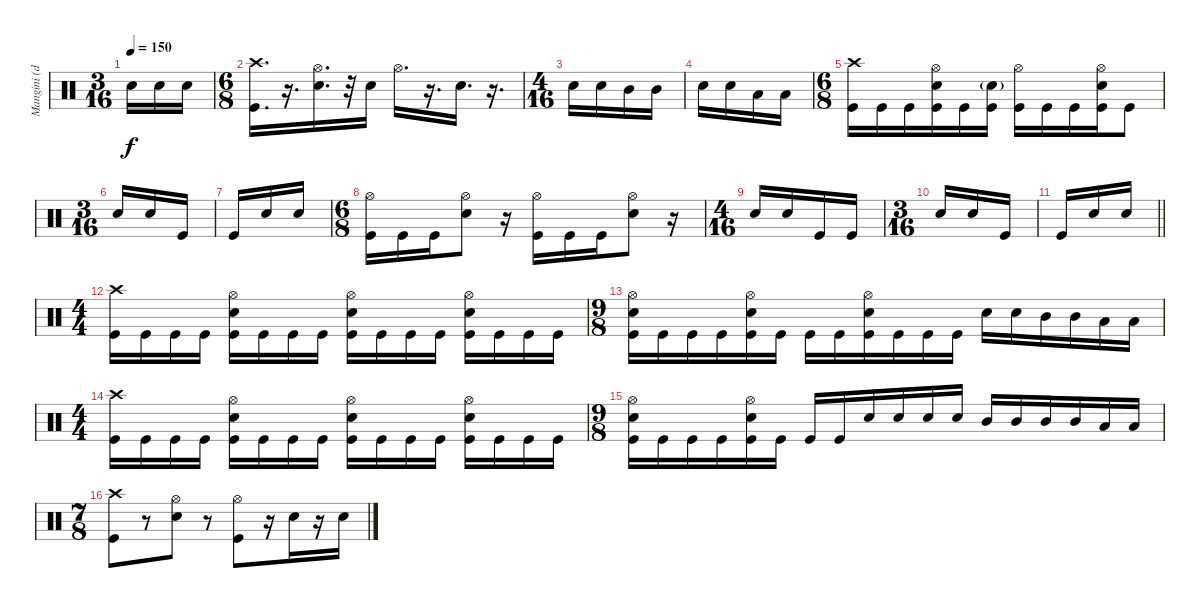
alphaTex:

\track ("Mangini (drums)" "Mangini (d") {instrument percussion}
\staff {score}
\articulation defaults
\ts (3 16)
\tempo 150
\clef neutral
\ks aminor "Snare (hit) 2".16{dy f beam merge} "Snare (hit) 2".16{beam merge} "Snare (hit) 2".16
|
\ts (6 8)
("Crash high (hit)" "Kick (hit)").16{d} r.16{d} ("Hi-Hat (open)" "Snare (hit) 2").16{d} r.32 "Snare (hit) 2".16 "Hi-Hat (open)".16{d} r.16{d} "Snare (hit) 2".16{d} r.16{d} |
\ts (4 16)
"Snare (hit) 2".16{beam merge} "Snare (hit) 2".16{beam merge} "Mid Tom (hit)".16{beam merge} "Mid Tom (hit)".16 |
"Snare (hit) 2".16{beam merge} "Snare (hit) 2".16{beam merge} "Low Tom (hit)".16{beam merge} "Low Tom (hit)".16 |
\ts (6 8)
("Crash high (hit)" "Kick (hit)").16 "Kick (hit)".16 "Kick (hit)".16 ("Hi-Hat (open)" "Snare (hit) 2" "Kick (hit)").16 "Kick (hit)".16 ("Snare (hit) 2"{g} "Kick (hit)").16 ("Hi-Hat (open)" "Kick (hit)").16 "Kick (hit)".16 "Kick (hit)".16 ("Hi-Hat (open)" "Snare (hit) 2" "Kick (hit)").16 "Kick (hit)".8 |
\ts (3 16)
"Snare (hit) 2".16{beam merge} "Snare (hit) 2".16{beam merge} "Kick (hit)".16 |
"Kick (hit)".16{beam merge} "Snare (hit) 2".16{beam merge} "Snare (hit) 2".16 |
\ts (6 8)
("Hi-Hat (open)" "Kick (hit)").16 "Kick (hit)".16 "Kick (hit)".16 ("Hi-Hat (open)" "Snare (hit) 2").8 r.16 ("Hi-Hat (open)" "Kick (hit)").16 "Kick (hit)".16 "Kick (hit)".16 ("Hi-Hat (open)" "Snare (hit) 2").8 r.16 |
\ts (4 16)
"Snare (hit) 2".16{beam merge} "Snare (hit) 2".16{beam merge} "Kick (hit)".16{beam merge} "Kick (hit)".16 |
\ts (3 16)
"Snare (hit) 2".16{beam merge} "Snare (hit) 2".16{beam merge} "Kick (hit)".16 |
\barLineRight lightlight "Kick (hit)".16{beam merge} "Snare (hit) 2".16{beam merge} "Snare (hit) 2".16
|
\ts (4 4)
("Crash high (hit)" "Kick (hit)").16 "Kick (hit)".16 "Kick (hit)".16 "Kick (hit)".16 ("Hi-Hat (open)" "Snare (hit) 2" "Kick (hit)").16 "Kick (hit)".16 "Kick (hit)".16 "Kick (hit)".16 ("Hi-Hat (open)" "Snare (hit) 2" "Kick (hit)").16 "Kick (hit)".16 "Kick (hit)".16 "Kick (hit)".16 ("Hi-Hat (open)" "Snare (hit) 2" "Kick (hit)").16 "Kick (hit)".16 "Kick (hit)".16 "Kick (hit)".16 |
\ts (9 8)
("Hi-Hat (open)" "Snare (hit) 2" "Kick (hit)").16 "Kick (hit)".16 "Kick (hit)".16 "Kick (hit)".16 ("Hi-Hat (open)" "Snare (hit) 2" "Kick (hit)").16 "Kick (hit)".16 "Kick (hit)".16 "Kick (hit)".16 ("Hi-Hat (open)" "Snare (hit) 2" "Kick (hit)").16 "Kick (hit)".16 "Kick (hit)".16 "Kick (hit)".16 "Snare (hit) 2".16 "Snare (hit) 2".16 "Mid Tom (hit)".16 "Mid Tom (hit)".16 "Low Tom (hit)".16 "Low Tom (hit)".16 |
\ts (4 4)
("Crash high (hit)" "Kick (hit)").16 "Kick (hit)".16 "Kick (hit)".16 "Kick (hit)".16 ("Hi-Hat (open)" "Snare (hit) 2" "Kick (hit)").16 "Kick (hit)".16 "Kick (hit)".16 "Kick (hit)".16 ("Hi-Hat (open)" "Snare (hit) 2" "Kick (hit)").16 "Kick (hit)".16 "Kick (hit)".16 "Kick (hit)".16 ("Hi-Hat (open)" "Snare (hit) 2" "Kick (hit)").16 "Kick (hit)".16 "Kick (hit)".16 "Kick (hit)".16 |
\ts (9 8)
("Hi-Hat (open)" "Snare (hit) 2" "Kick (hit)").16 "Kick (hit)".16 "Kick (hit)".16 "Kick (hit)".16 ("Hi-Hat (open)" "Snare (hit) 2" "Kick (hit)").16 "Kick (hit)".16 "Kick (hit)".16 "Kick (hit)".16 "Snare (hit) 2".16 "Snare (hit) 2".16 "Snare (hit) 2".16 "Snare (hit) 2".16 "Mid Tom (hit)".16 "Mid Tom (hit)".16 "Mid Tom (hit)".16 "Mid Tom (hit)".16 "Low Tom (hit)".16 "Low Tom (hit)".16 |
\ts (7 8)
("Crash high (hit)" "Kick (hit)").8 r.8 ("Hi-Hat (open)" "Snare (hit) 2").8 r.8 ("Hi-Hat (open)" "Kick (hit)").8 r.16 "Snare (hit) 2".16 r.16 "Snare (hit) 2".16
